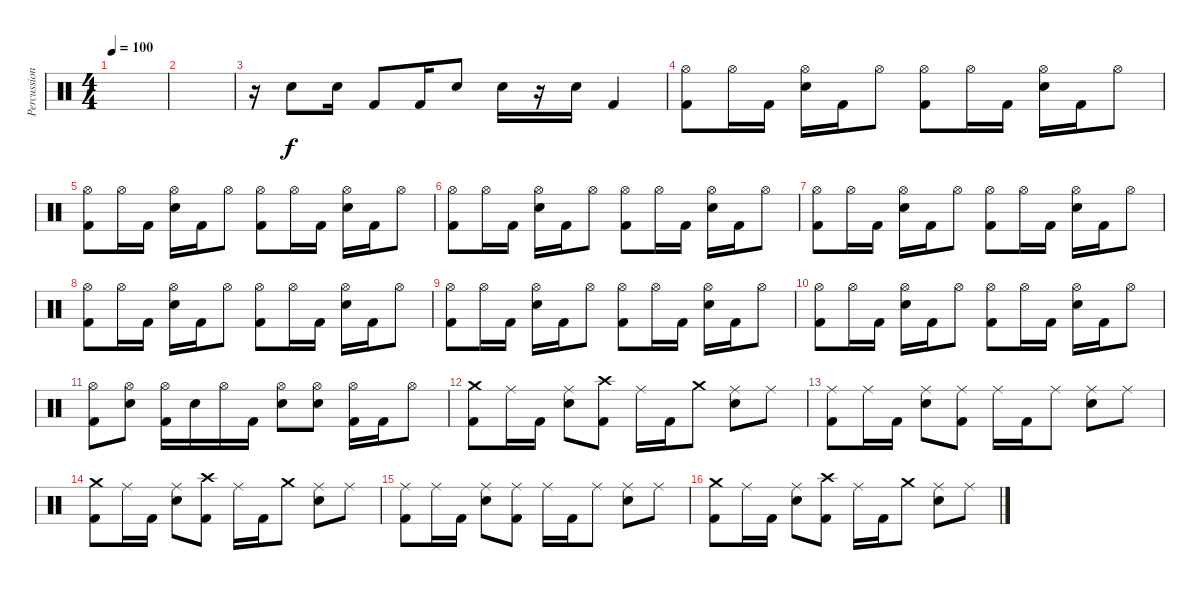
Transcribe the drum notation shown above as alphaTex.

\track ("Percussions" "Percussion") {instrument percussion}
\staff {score}
\articulation defaults
\ts (4 4)
\tempo 100
\clef neutral
\ks c
|
|
r.16 "Electric Snare (hit)".8 "Electric Snare (hit)".16 "Kick (hit) 2".8 "Kick (hit) 2".16 "Electric Snare (hit)".8 "Electric Snare (hit)".16 r.16 "Electric Snare (hit)".16 "Kick (hit) 2".4 |
("Hi-Hat (open)" "Kick (hit) 2").8 "Hi-Hat (open)".16 "Kick (hit) 2".16 ("Electric Snare (hit)" "Hi-Hat (open)").16 "Kick (hit) 2".16 "Hi-Hat (open)".8 ("Hi-Hat (open)" "Kick (hit) 2").8 "Hi-Hat (open)".16 "Kick (hit) 2".16 ("Electric Snare (hit)" "Hi-Hat (open)").16 "Kick (hit) 2".16 "Hi-Hat (open)".8 |
("Hi-Hat (open)" "Kick (hit) 2").8 "Hi-Hat (open)".16 "Kick (hit) 2".16 ("Electric Snare (hit)" "Hi-Hat (open)").16 "Kick (hit) 2".16 "Hi-Hat (open)".8 ("Hi-Hat (open)" "Kick (hit) 2").8 "Hi-Hat (open)".16 "Kick (hit) 2".16 ("Electric Snare (hit)" "Hi-Hat (open)").16 "Kick (hit) 2".16 "Hi-Hat (open)".8 |
("Hi-Hat (open)" "Kick (hit) 2").8 "Hi-Hat (open)".16 "Kick (hit) 2".16 ("Electric Snare (hit)" "Hi-Hat (open)").16 "Kick (hit) 2".16 "Hi-Hat (open)".8 ("Hi-Hat (open)" "Kick (hit) 2").8 "Hi-Hat (open)".16 "Kick (hit) 2".16 ("Electric Snare (hit)" "Hi-Hat (open)").16 "Kick (hit) 2".16 "Hi-Hat (open)".8 |
("Hi-Hat (open)" "Kick (hit) 2").8 "Hi-Hat (open)".16 "Kick (hit) 2".16 ("Electric Snare (hit)" "Hi-Hat (open)").16 "Kick (hit) 2".16 "Hi-Hat (open)".8 ("Hi-Hat (open)" "Kick (hit) 2").8 "Hi-Hat (open)".16 "Kick (hit) 2".16 ("Electric Snare (hit)" "Hi-Hat (open)").16 "Kick (hit) 2".16 "Hi-Hat (open)".8 |
("Hi-Hat (open)" "Kick (hit) 2").8 "Hi-Hat (open)".16 "Kick (hit) 2".16 ("Electric Snare (hit)" "Hi-Hat (open)").16 "Kick (hit) 2".16 "Hi-Hat (open)".8 ("Hi-Hat (open)" "Kick (hit) 2").8 "Hi-Hat (open)".16 "Kick (hit) 2".16 ("Electric Snare (hit)" "Hi-Hat (open)").16 "Kick (hit) 2".16 "Hi-Hat (open)".8 |
("Hi-Hat (open)" "Kick (hit) 2").8 "Hi-Hat (open)".16 "Kick (hit) 2".16 ("Electric Snare (hit)" "Hi-Hat (open)").16 "Kick (hit) 2".16 "Hi-Hat (open)".8 ("Hi-Hat (open)" "Kick (hit) 2").8 "Hi-Hat (open)".16 "Kick (hit) 2".16 ("Electric Snare (hit)" "Hi-Hat (open)").16 "Kick (hit) 2".16 "Hi-Hat (open)".8 |
("Hi-Hat (open)" "Kick (hit) 2").8 "Hi-Hat (open)".16 "Kick (hit) 2".16 ("Electric Snare (hit)" "Hi-Hat (open)").16 "Kick (hit) 2".16 "Hi-Hat (open)".8 ("Hi-Hat (open)" "Kick (hit) 2").8 "Hi-Hat (open)".16 "Kick (hit) 2".16 ("Electric Snare (hit)" "Hi-Hat (open)").16 "Kick (hit) 2".16 "Hi-Hat (open)".8 |
("Hi-Hat (open)" "Kick (hit) 2").8 ("Electric Snare (hit)" "Hi-Hat (open)").8 ("Hi-Hat (open)" "Kick (hit) 2").16 "Electric Snare (hit)".16 "Hi-Hat (open)".16 "Kick (hit) 2".16 ("Electric Snare (hit)" "Hi-Hat (open)").8 ("Electric Snare (hit)" "Hi-Hat (open)").8 ("Hi-Hat (open)" "Kick (hit) 2").16 "Kick (hit) 2".16 "Hi-Hat (open)".8 |
("Crash medium (hit)" "Kick (hit) 2").8 "Ride (middle)".16 "Kick (hit) 2".16 ("Electric Snare (hit)" "Ride (middle)").8 ("Crash high (hit)" "Kick (hit) 2").8 "Ride (middle)".16 "Kick (hit) 2".16 "Crash medium (hit)".8 ("Electric Snare (hit)" "Ride (middle)").8 "Ride (middle)".8 |
("Ride (middle)" "Kick (hit) 2").8 "Ride (middle)".16 "Kick (hit) 2".16 ("Electric Snare (hit)" "Ride (middle)").8 ("Ride (middle)" "Kick (hit) 2").8 "Ride (middle)".16 "Kick (hit) 2".16 "Ride (middle)".8 ("Electric Snare (hit)" "Ride (middle)").8 "Ride (middle)".8 |
("Crash medium (hit)" "Kick (hit) 2").8 "Ride (middle)".16 "Kick (hit) 2".16 ("Electric Snare (hit)" "Ride (middle)").8 ("Crash high (hit)" "Kick (hit) 2").8 "Ride (middle)".16 "Kick (hit) 2".16 "Crash medium (hit)".8 ("Electric Snare (hit)" "Ride (middle)").8 "Ride (middle)".8 |
("Ride (middle)" "Kick (hit) 2").8 "Ride (middle)".16 "Kick (hit) 2".16 ("Electric Snare (hit)" "Ride (middle)").8 ("Ride (middle)" "Kick (hit) 2").8 "Ride (middle)".16 "Kick (hit) 2".16 "Ride (middle)".8 ("Electric Snare (hit)" "Ride (middle)").8 "Ride (middle)".8 |
("Crash medium (hit)" "Kick (hit) 2").8 "Ride (middle)".16 "Kick (hit) 2".16 ("Electric Snare (hit)" "Ride (middle)").8 ("Crash high (hit)" "Kick (hit) 2").8 "Ride (middle)".16 "Kick (hit) 2".16 "Crash medium (hit)".8 ("Electric Snare (hit)" "Ride (middle)").8 "Ride (middle)".8
